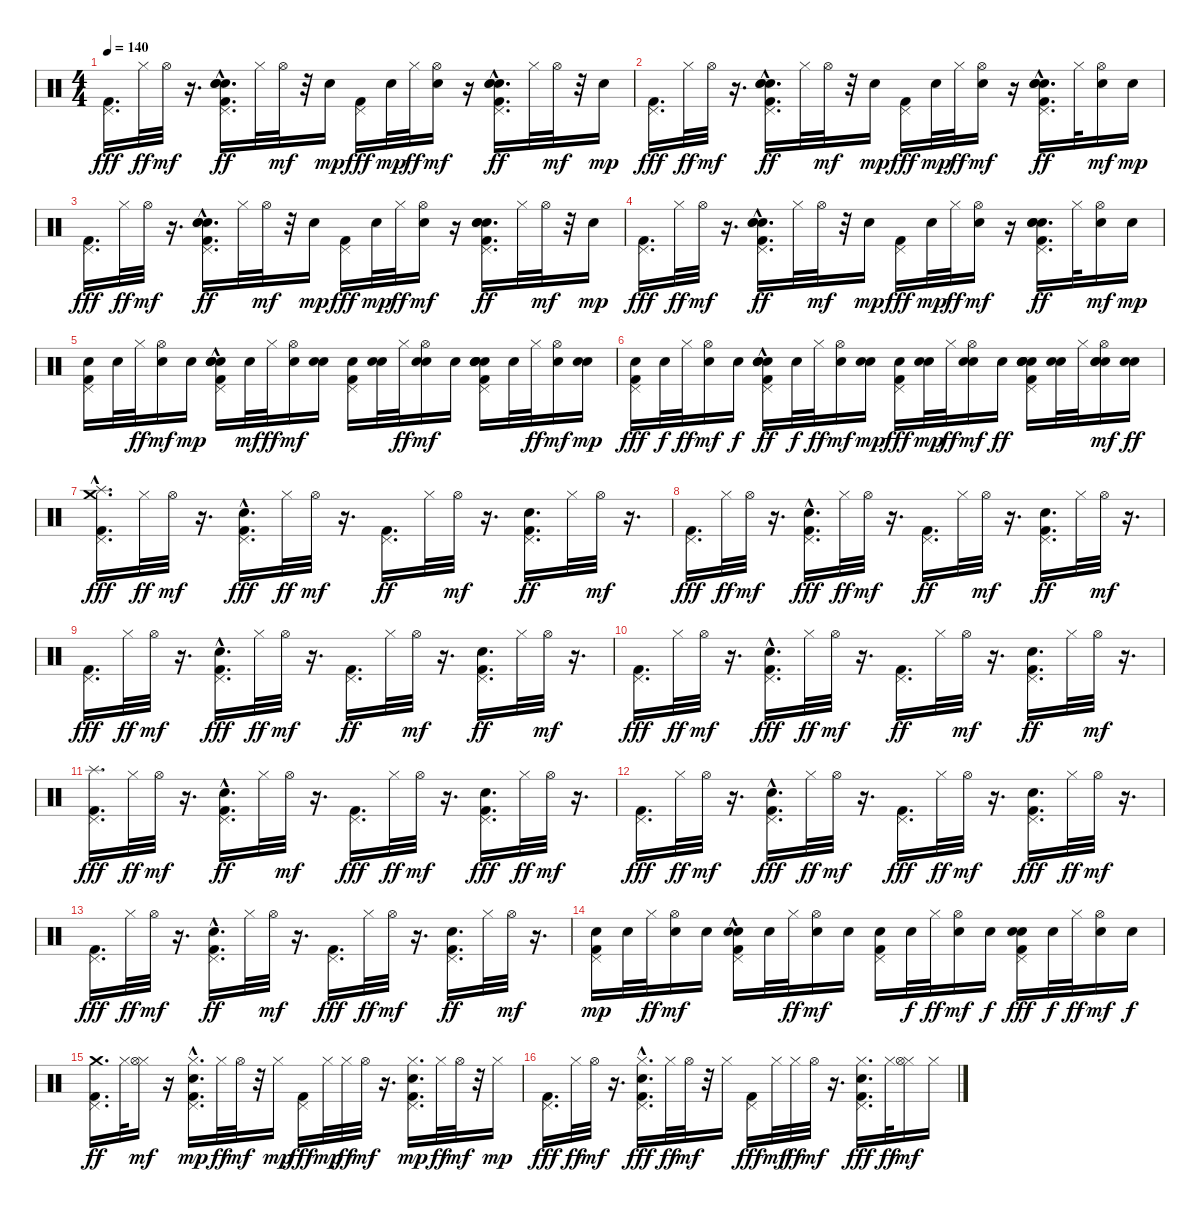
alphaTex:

\track "" {instrument percussion}
\staff {score}
\articulation defaults
\ts (4 4)
\tempo 140
\clef neutral
\ks c
("Pedal Hi-Hat (hit)" "Kick (hit) 2").16{d dy fff} "Hi-Hat (closed)".32{dy ff} "Hi-Hat (open)".32{dy mf} r.16{d} ("Pedal Hi-Hat (hit)" "Kick (hit) 2" "Electric Snare (hit)" "Snare (hit) 2"{hac} "Hand Clap (hit)"{hac}).16{d dy ff} "Hi-Hat (closed)".32 "Hi-Hat (open)".32{dy mf} r.32 "Electric Snare (hit)".16{dy mp} ("Pedal Hi-Hat (hit)" "Kick (hit) 2").16{dy fff} "Electric Snare (hit)".32{dy mp} "Hi-Hat (closed)".32{dy ff} ("Electric Snare (hit)" "Hi-Hat (open)").16{dy mf} r.16 ("Pedal Hi-Hat (hit)" "Kick (hit) 2" "Electric Snare (hit)" "Snare (hit) 2"{hac} "Hand Clap (hit)").16{d dy ff} "Hi-Hat (closed)".32 "Hi-Hat (open)".32{dy mf} r.32 "Electric Snare (hit)".16{dy mp} |
("Pedal Hi-Hat (hit)" "Kick (hit) 2").16{d dy fff} "Hi-Hat (closed)".32{dy ff} "Hi-Hat (open)".32{dy mf} r.16{d} ("Pedal Hi-Hat (hit)" "Kick (hit) 2" "Electric Snare (hit)" "Snare (hit) 2"{hac} "Hand Clap (hit)"{hac}).16{d dy ff} "Hi-Hat (closed)".32 "Hi-Hat (open)".32{dy mf} r.32 "Electric Snare (hit)".16{dy mp} ("Pedal Hi-Hat (hit)" "Kick (hit) 2").16{dy fff} "Electric Snare (hit)".32{dy mp} "Hi-Hat (closed)".32{dy ff} ("Electric Snare (hit)" "Hi-Hat (open)").16{dy mf} r.16 ("Pedal Hi-Hat (hit)" "Kick (hit) 2" "Electric Snare (hit)" "Snare (hit) 2"{hac} "Hand Clap (hit)").16{d dy ff} "Hi-Hat (closed)".32 ("Electric Snare (hit)" "Hi-Hat (open)").16{dy mf} "Electric Snare (hit)".16{dy mp} |
("Pedal Hi-Hat (hit)" "Kick (hit) 2").16{d dy fff} "Hi-Hat (closed)".32{dy ff} "Hi-Hat (open)".32{dy mf} r.16{d} ("Pedal Hi-Hat (hit)" "Kick (hit) 2" "Electric Snare (hit)" "Snare (hit) 2"{hac} "Hand Clap (hit)"{hac}).16{d dy ff} "Hi-Hat (closed)".32 "Hi-Hat (open)".32{dy mf} r.32 "Electric Snare (hit)".16{dy mp} ("Pedal Hi-Hat (hit)" "Kick (hit) 2").16{dy fff} "Electric Snare (hit)".32{dy mp} "Hi-Hat (closed)".32{dy ff} ("Electric Snare (hit)" "Hi-Hat (open)").16{dy mf} r.16 ("Pedal Hi-Hat (hit)" "Kick (hit) 2" "Electric Snare (hit)" "Snare (hit) 2" "Hand Clap (hit)").16{d dy ff} "Hi-Hat (closed)".32 "Hi-Hat (open)".32{dy mf} r.32 "Electric Snare (hit)".16{dy mp} |
("Pedal Hi-Hat (hit)" "Kick (hit) 2").16{d dy fff} "Hi-Hat (closed)".32{dy ff} "Hi-Hat (open)".32{dy mf} r.16{d} ("Pedal Hi-Hat (hit)" "Kick (hit) 2" "Electric Snare (hit)" "Snare (hit) 2" "Hand Clap (hit)"{hac}).16{d dy ff} "Hi-Hat (closed)".32 "Hi-Hat (open)".32{dy mf} r.32 "Electric Snare (hit)".16{dy mp} ("Pedal Hi-Hat (hit)" "Kick (hit) 2").16{dy fff} "Electric Snare (hit)".32{dy mp} "Hi-Hat (closed)".32{dy ff} ("Electric Snare (hit)" "Hi-Hat (open)").16{dy mf} r.16 ("Pedal Hi-Hat (hit)" "Kick (hit) 2" "Electric Snare (hit)" "Snare (hit) 2" "Hand Clap (hit)").16{d dy ff} "Hi-Hat (closed)".32 ("Electric Snare (hit)" "Hi-Hat (open)").16{dy mf} "Electric Snare (hit)".16{dy mp} |
("Pedal Hi-Hat (hit)" "Kick (hit) 2" "Snare (hit) 2").16 "Snare (hit) 2".32 "Hi-Hat (closed)".32{dy ff} ("Snare (hit) 2" "Hi-Hat (open)").16{dy mf} "Snare (hit) 2".16{dy mp} ("Pedal Hi-Hat (hit)" "Kick (hit) 2" "Electric Snare (hit)" "Snare (hit) 2" "Snare (hit) 2" "Hand Clap (hit)"{hac}).16 "Snare (hit) 2".32{dy mf} "Hi-Hat (closed)".32{dy ff} ("Snare (hit) 2" "Hi-Hat (open)").16{dy mf} ("Electric Snare (hit)" "Snare (hit) 2").16 ("Pedal Hi-Hat (hit)" "Kick (hit) 2" "Snare (hit) 2").16 ("Electric Snare (hit)" "Snare (hit) 2").32 "Hi-Hat (closed)".32{dy ff} ("Electric Snare (hit)" "Snare (hit) 2" "Hi-Hat (open)").16{dy mf} "Snare (hit) 2".16 ("Pedal Hi-Hat (hit)" "Kick (hit) 2" "Electric Snare (hit)" "Snare (hit) 2" "Snare (hit) 2" "Hand Clap (hit)").16 "Snare (hit) 2".32 "Hi-Hat (closed)".32{dy ff} ("Snare (hit) 2" "Hi-Hat (open)").16{dy mf} ("Electric Snare (hit)" "Snare (hit) 2").16{dy mp} |
("Pedal Hi-Hat (hit)" "Kick (hit) 2" "Snare (hit) 2").16{dy fff} "Snare (hit) 2".32{dy f} "Hi-Hat (closed)".32{dy ff} ("Snare (hit) 2" "Hi-Hat (open)").16{dy mf} "Snare (hit) 2".16{dy f} ("Pedal Hi-Hat (hit)" "Kick (hit) 2" "Electric Snare (hit)" "Snare (hit) 2" "Snare (hit) 2" "Hand Clap (hit)"{hac}).16{dy ff} "Snare (hit) 2".32{dy f} "Hi-Hat (closed)".32{dy ff} ("Snare (hit) 2" "Hi-Hat (open)").16{dy mf} ("Electric Snare (hit)" "Snare (hit) 2").16{dy mp} ("Pedal Hi-Hat (hit)" "Kick (hit) 2" "Snare (hit) 2").16{dy fff} ("Electric Snare (hit)" "Snare (hit) 2").32{dy mp} "Hi-Hat (closed)".32{dy ff} ("Electric Snare (hit)" "Snare (hit) 2" "Hi-Hat (open)").16{dy mf} "Snare (hit) 2".16{dy ff} ("Pedal Hi-Hat (hit)" "Kick (hit) 2" "Electric Snare (hit)" "Snare (hit) 2" "Snare (hit) 2" "Hand Clap (hit)").16 ("Electric Snare (hit)" "Snare (hit) 2").32 "Hi-Hat (closed)".32 ("Electric Snare (hit)" "Snare (hit) 2" "Snare (hit) 2" "Hi-Hat (open)").16{dy mf} ("Electric Snare (hit)" "Snare (hit) 2").16{dy ff} |
("Pedal Hi-Hat (hit)" "Kick (hit) 2" "Crash medium (hit)"{hac} "Splash (hit)"{hac}).16{d dy fff} "Hi-Hat (closed)".32{dy ff} "Hi-Hat (open)".32{dy mf} r.16{d} ("Pedal Hi-Hat (hit)" "Hand Clap (hit)"{hac} "Kick (hit) 2").16{d dy fff} "Hi-Hat (closed)".32{dy ff} "Hi-Hat (open)".32{dy mf} r.16{d} ("Kick (hit) 2" "Pedal Hi-Hat (hit)").16{d dy ff} "Hi-Hat (closed)".32 "Hi-Hat (open)".32{dy mf} r.16{d} ("Kick (hit) 2" "Hand Clap (hit)" "Pedal Hi-Hat (hit)").16{d dy ff} "Hi-Hat (closed)".32 "Hi-Hat (open)".32{dy mf} r.16{d} |
("Pedal Hi-Hat (hit)" "Kick (hit) 2").16{d dy fff} "Hi-Hat (closed)".32{dy ff} "Hi-Hat (open)".32{dy mf} r.16{d} ("Pedal Hi-Hat (hit)" "Hand Clap (hit)"{hac} "Kick (hit) 2").16{d dy fff} "Hi-Hat (closed)".32{dy ff} "Hi-Hat (open)".32{dy mf} r.16{d} ("Kick (hit) 2" "Pedal Hi-Hat (hit)").16{d dy ff} "Hi-Hat (closed)".32 "Hi-Hat (open)".32{dy mf} r.16{d} ("Kick (hit) 2" "Hand Clap (hit)" "Pedal Hi-Hat (hit)").16{d dy ff} "Hi-Hat (closed)".32 "Hi-Hat (open)".32{dy mf} r.16{d} |
("Pedal Hi-Hat (hit)" "Kick (hit) 2").16{d dy fff} "Hi-Hat (closed)".32{dy ff} "Hi-Hat (open)".32{dy mf} r.16{d} ("Pedal Hi-Hat (hit)" "Hand Clap (hit)"{hac} "Kick (hit) 2").16{d dy fff} "Hi-Hat (closed)".32{dy ff} "Hi-Hat (open)".32{dy mf} r.16{d} ("Kick (hit) 2" "Pedal Hi-Hat (hit)").16{d dy ff} "Hi-Hat (closed)".32 "Hi-Hat (open)".32{dy mf} r.16{d} ("Kick (hit) 2" "Pedal Hi-Hat (hit)" "Hand Clap (hit)").16{d dy ff} "Hi-Hat (closed)".32 "Hi-Hat (open)".32{dy mf} r.16{d} |
("Pedal Hi-Hat (hit)" "Kick (hit) 2").16{d dy fff} "Hi-Hat (closed)".32{dy ff} "Hi-Hat (open)".32{dy mf} r.16{d} ("Pedal Hi-Hat (hit)" "Hand Clap (hit)"{hac} "Kick (hit) 2").16{d dy fff} "Hi-Hat (closed)".32{dy ff} "Hi-Hat (open)".32{dy mf} r.16{d} ("Kick (hit) 2" "Pedal Hi-Hat (hit)").16{d dy ff} "Hi-Hat (closed)".32 "Hi-Hat (open)".32{dy mf} r.16{d} ("Kick (hit) 2" "Hand Clap (hit)" "Pedal Hi-Hat (hit)").16{d dy ff} "Hi-Hat (closed)".32 "Hi-Hat (open)".32{dy mf} r.16{d} |
("Pedal Hi-Hat (hit)" "Splash (hit)" "Kick (hit) 2").16{d dy fff} "Hi-Hat (closed)".32{dy ff} "Hi-Hat (open)".32{dy mf} r.16{d} ("Hand Clap (hit)"{hac} "Kick (hit) 2" "Pedal Hi-Hat (hit)").16{d dy ff} "Hi-Hat (closed)".32 "Hi-Hat (open)".32{dy mf} r.16{d} ("Pedal Hi-Hat (hit)" "Kick (hit) 2").16{d dy fff} "Hi-Hat (closed)".32{dy ff} "Hi-Hat (open)".32{dy mf} r.16{d} ("Pedal Hi-Hat (hit)" "Kick (hit) 2" "Hand Clap (hit)").16{d dy fff} "Hi-Hat (closed)".32{dy ff} "Hi-Hat (open)".32{dy mf} r.16{d} |
("Pedal Hi-Hat (hit)" "Kick (hit) 2").16{d dy fff} "Hi-Hat (closed)".32{dy ff} "Hi-Hat (open)".32{dy mf} r.16{d} ("Pedal Hi-Hat (hit)" "Hand Clap (hit)"{hac} "Kick (hit) 2").16{d dy fff} "Hi-Hat (closed)".32{dy ff} "Hi-Hat (open)".32{dy mf} r.16{d} ("Pedal Hi-Hat (hit)" "Kick (hit) 2").16{d dy fff} "Hi-Hat (closed)".32{dy ff} "Hi-Hat (open)".32{dy mf} r.16{d} ("Pedal Hi-Hat (hit)" "Kick (hit) 2" "Hand Clap (hit)").16{d dy fff} "Hi-Hat (closed)".32{dy ff} "Hi-Hat (open)".32{dy mf} r.16{d} |
("Pedal Hi-Hat (hit)" "Kick (hit) 2").16{d dy fff} "Hi-Hat (closed)".32{dy ff} "Hi-Hat (open)".32{dy mf} r.16{d} ("Hand Clap (hit)"{hac} "Kick (hit) 2" "Pedal Hi-Hat (hit)").16{d dy ff} "Hi-Hat (closed)".32 "Hi-Hat (open)".32{dy mf} r.16{d} ("Pedal Hi-Hat (hit)" "Kick (hit) 2").16{d dy fff} "Hi-Hat (closed)".32{dy ff} "Hi-Hat (open)".32{dy mf} r.16{d} ("Hand Clap (hit)" "Kick (hit) 2" "Pedal Hi-Hat (hit)").16{d dy ff} "Hi-Hat (closed)".32 "Hi-Hat (open)".32{dy mf} r.16{d} |
("Pedal Hi-Hat (hit)" "Kick (hit) 2" "Snare (hit) 2").16{dy mp} "Snare (hit) 2".32 "Hi-Hat (closed)".32{dy ff} ("Snare (hit) 2" "Hi-Hat (open)").16{dy mf} "Snare (hit) 2".16 ("Pedal Hi-Hat (hit)" "Kick (hit) 2" "Snare (hit) 2" "Hand Clap (hit)"{hac}).16 "Snare (hit) 2".32 "Hi-Hat (closed)".32{dy ff} ("Snare (hit) 2" "Hi-Hat (open)").16{dy mf} "Snare (hit) 2".16 ("Pedal Hi-Hat (hit)" "Kick (hit) 2" "Snare (hit) 2").16 "Snare (hit) 2".32{dy f} "Hi-Hat (closed)".32{dy ff} ("Snare (hit) 2" "Hi-Hat (open)").16{dy mf} "Snare (hit) 2".16{dy f} ("Pedal Hi-Hat (hit)" "Hand Clap (hit)" "Snare (hit) 2" "Kick (hit) 2").16{dy fff} "Snare (hit) 2".32{dy f} "Hi-Hat (closed)".32{dy ff} ("Snare (hit) 2" "Hi-Hat (open)").16{dy mf} "Snare (hit) 2".16{dy f} |
("Crash medium (hit)" "Kick (hit) 2" "Pedal Hi-Hat (hit)").16{d dy ff} "Hi-Hat (closed)".32 ("Hi-Hat (closed)" "Hi-Hat (open)").16{dy mf} r.16 ("Pedal Hi-Hat (hit)" "Kick (hit) 2" "Hi-Hat (closed)" "Hand Clap (hit)"{hac}).16{d dy mp} "Hi-Hat (closed)".32{dy ff} "Hi-Hat (open)".32{dy mf} r.32 "Hi-Hat (closed)".16{dy mp} ("Pedal Hi-Hat (hit)" "Kick (hit) 2").16{dy fff} "Hi-Hat (closed)".32{dy mp} "Hi-Hat (closed)".32{dy ff} "Hi-Hat (open)".32{dy mf} r.16{d} ("Kick (hit) 2" "Pedal Hi-Hat (hit)" "Hand Clap (hit)" "Hi-Hat (closed)").16{d dy mp} "Hi-Hat (closed)".32{dy ff} "Hi-Hat (open)".32{dy mf} r.32 "Hi-Hat (closed)".16{dy mp} |
("Pedal Hi-Hat (hit)" "Kick (hit) 2").16{d dy fff} "Hi-Hat (closed)".32{dy ff} "Hi-Hat (open)".32{dy mf} r.16{d} ("Hi-Hat (closed)" "Hand Clap (hit)"{hac} "Pedal Hi-Hat (hit)" "Kick (hit) 2").16{d dy fff} "Hi-Hat (closed)".32{dy ff} "Hi-Hat (open)".32{dy mf} r.32 "Hi-Hat (closed)".16 ("Pedal Hi-Hat (hit)" "Kick (hit) 2").16{dy fff} "Hi-Hat (closed)".32{dy mf} "Hi-Hat (closed)".32{dy ff} "Hi-Hat (open)".32{dy mf} r.16{d} ("Hi-Hat (closed)" "Hand Clap (hit)" "Pedal Hi-Hat (hit)" "Kick (hit) 2").16{d dy fff} "Hi-Hat (closed)".32{dy ff} ("Hi-Hat (closed)" "Hi-Hat (open)").16{dy mf} "Hi-Hat (closed)".16
